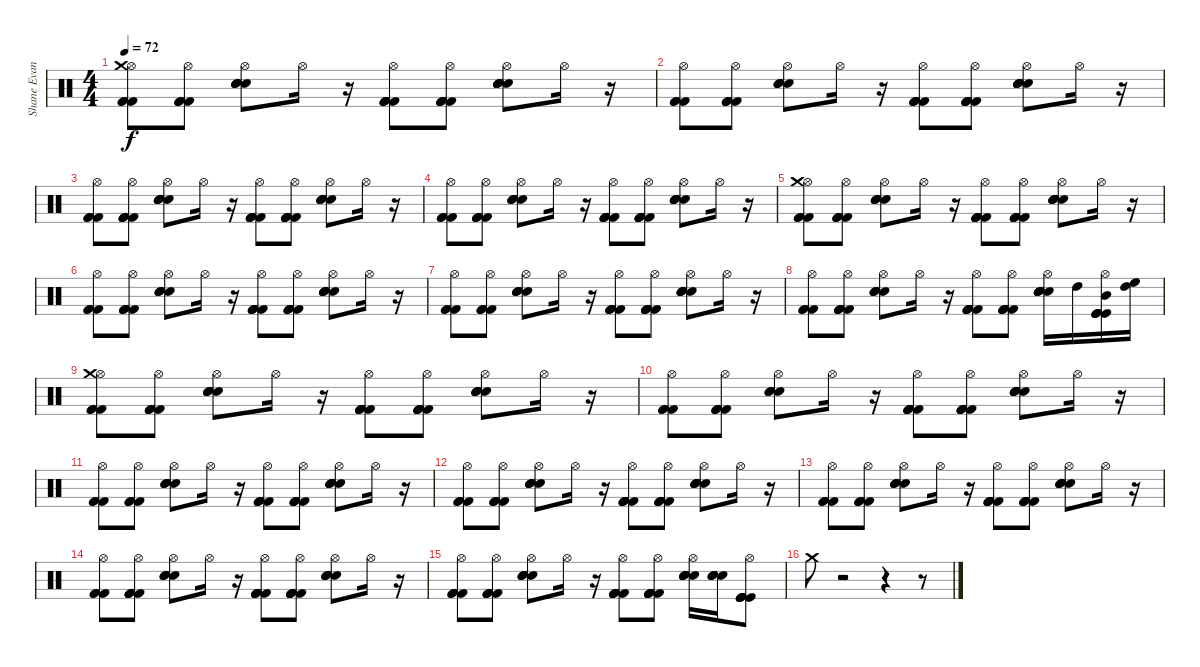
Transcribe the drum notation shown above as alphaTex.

\track ("Shane Evans" "Shane Evan") {instrument percussion}
\staff {score}
\articulation defaults
\ts (4 4)
\tempo 72
\clef neutral
\ks c
("Hi-Hat (open)" "Crash medium (hit)" "Kick (hit) 2" "Kick (hit) 2" "Kick (hit) 2").8{dy f} ("Hi-Hat (open)" "Kick (hit) 2" "Kick (hit) 2" "Kick (hit) 2" "Kick (hit) 2").8 ("Hi-Hat (open)" "Snare (hit) 2" "Snare (hit) 2" "Snare (hit) 2" "Snare (hit) 2").8 "Hi-Hat (open)".16 r.16 ("Hi-Hat (open)" "Kick (hit) 2" "Kick (hit) 2" "Kick (hit) 2" "Kick (hit) 2" "Kick (hit) 2").8 ("Hi-Hat (open)" "Kick (hit) 2" "Kick (hit) 2" "Kick (hit) 2" "Kick (hit) 2" "Kick (hit) 2").8 ("Hi-Hat (open)" "Snare (hit) 2" "Snare (hit) 2" "Snare (hit) 2" "Snare (hit) 2" "Snare (hit) 2").8 "Hi-Hat (open)".16 r.16 |
("Hi-Hat (open)" "Kick (hit) 2" "Kick (hit) 2" "Kick (hit) 2").8 ("Hi-Hat (open)" "Kick (hit) 2" "Kick (hit) 2" "Kick (hit) 2" "Kick (hit) 2").8 ("Hi-Hat (open)" "Snare (hit) 2" "Snare (hit) 2" "Snare (hit) 2" "Snare (hit) 2").8 "Hi-Hat (open)".16 r.16 ("Hi-Hat (open)" "Kick (hit) 2" "Kick (hit) 2" "Kick (hit) 2" "Kick (hit) 2" "Kick (hit) 2").8 ("Hi-Hat (open)" "Kick (hit) 2" "Kick (hit) 2" "Kick (hit) 2" "Kick (hit) 2" "Kick (hit) 2").8 ("Hi-Hat (open)" "Snare (hit) 2" "Snare (hit) 2" "Snare (hit) 2" "Snare (hit) 2" "Snare (hit) 2").8 "Hi-Hat (open)".16 r.16 |
("Hi-Hat (open)" "Kick (hit) 2" "Kick (hit) 2" "Kick (hit) 2").8 ("Hi-Hat (open)" "Kick (hit) 2" "Kick (hit) 2" "Kick (hit) 2" "Kick (hit) 2").8 ("Hi-Hat (open)" "Snare (hit) 2" "Snare (hit) 2" "Snare (hit) 2" "Snare (hit) 2").8 "Hi-Hat (open)".16 r.16 ("Hi-Hat (open)" "Kick (hit) 2" "Kick (hit) 2" "Kick (hit) 2" "Kick (hit) 2" "Kick (hit) 2").8 ("Hi-Hat (open)" "Kick (hit) 2" "Kick (hit) 2" "Kick (hit) 2" "Kick (hit) 2" "Kick (hit) 2").8 ("Hi-Hat (open)" "Snare (hit) 2" "Snare (hit) 2" "Snare (hit) 2" "Snare (hit) 2" "Snare (hit) 2").8 "Hi-Hat (open)".16 r.16 |
("Hi-Hat (open)" "Kick (hit) 2" "Kick (hit) 2" "Kick (hit) 2").8 ("Hi-Hat (open)" "Kick (hit) 2" "Kick (hit) 2" "Kick (hit) 2" "Kick (hit) 2").8 ("Hi-Hat (open)" "Snare (hit) 2" "Snare (hit) 2" "Snare (hit) 2" "Snare (hit) 2").8 "Hi-Hat (open)".16 r.16 ("Hi-Hat (open)" "Kick (hit) 2" "Kick (hit) 2" "Kick (hit) 2" "Kick (hit) 2" "Kick (hit) 2").8 ("Hi-Hat (open)" "Kick (hit) 2" "Kick (hit) 2" "Kick (hit) 2" "Kick (hit) 2" "Kick (hit) 2").8 ("Hi-Hat (open)" "Snare (hit) 2" "Snare (hit) 2" "Snare (hit) 2" "Snare (hit) 2" "Snare (hit) 2").8 "Hi-Hat (open)".16 r.16 |
("Hi-Hat (open)" "Crash medium (hit)" "Kick (hit) 2" "Kick (hit) 2" "Kick (hit) 2").8 ("Hi-Hat (open)" "Kick (hit) 2" "Kick (hit) 2" "Kick (hit) 2" "Kick (hit) 2").8 ("Hi-Hat (open)" "Snare (hit) 2" "Snare (hit) 2" "Snare (hit) 2" "Snare (hit) 2").8 "Hi-Hat (open)".16 r.16 ("Hi-Hat (open)" "Kick (hit) 2" "Kick (hit) 2" "Kick (hit) 2" "Kick (hit) 2" "Kick (hit) 2").8 ("Hi-Hat (open)" "Kick (hit) 2" "Kick (hit) 2" "Kick (hit) 2" "Kick (hit) 2" "Kick (hit) 2").8 ("Hi-Hat (open)" "Snare (hit) 2" "Snare (hit) 2" "Snare (hit) 2" "Snare (hit) 2" "Snare (hit) 2").8 "Hi-Hat (open)".16 r.16 |
("Hi-Hat (open)" "Kick (hit) 2" "Kick (hit) 2" "Kick (hit) 2").8 ("Hi-Hat (open)" "Kick (hit) 2" "Kick (hit) 2" "Kick (hit) 2" "Kick (hit) 2").8 ("Hi-Hat (open)" "Snare (hit) 2" "Snare (hit) 2" "Snare (hit) 2" "Snare (hit) 2").8 "Hi-Hat (open)".16 r.16 ("Hi-Hat (open)" "Kick (hit) 2" "Kick (hit) 2" "Kick (hit) 2" "Kick (hit) 2" "Kick (hit) 2").8 ("Hi-Hat (open)" "Kick (hit) 2" "Kick (hit) 2" "Kick (hit) 2" "Kick (hit) 2" "Kick (hit) 2").8 ("Hi-Hat (open)" "Snare (hit) 2" "Snare (hit) 2" "Snare (hit) 2" "Snare (hit) 2" "Snare (hit) 2").8 "Hi-Hat (open)".16 r.16 |
("Hi-Hat (open)" "Kick (hit) 2" "Kick (hit) 2" "Kick (hit) 2").8 ("Hi-Hat (open)" "Kick (hit) 2" "Kick (hit) 2" "Kick (hit) 2" "Kick (hit) 2").8 ("Hi-Hat (open)" "Snare (hit) 2" "Snare (hit) 2" "Snare (hit) 2" "Snare (hit) 2").8 "Hi-Hat (open)".16 r.16 ("Hi-Hat (open)" "Kick (hit) 2" "Kick (hit) 2" "Kick (hit) 2" "Kick (hit) 2" "Kick (hit) 2").8 ("Hi-Hat (open)" "Kick (hit) 2" "Kick (hit) 2" "Kick (hit) 2" "Kick (hit) 2" "Kick (hit) 2").8 ("Hi-Hat (open)" "Snare (hit) 2" "Snare (hit) 2" "Snare (hit) 2" "Snare (hit) 2" "Snare (hit) 2").8 "Hi-Hat (open)".16 r.16 |
("Hi-Hat (open)" "Kick (hit) 2" "Kick (hit) 2" "Kick (hit) 2").8 ("Hi-Hat (open)" "Kick (hit) 2" "Kick (hit) 2" "Kick (hit) 2" "Kick (hit) 2").8 ("Hi-Hat (open)" "Snare (hit) 2" "Snare (hit) 2" "Snare (hit) 2" "Snare (hit) 2").8 "Hi-Hat (open)".16 r.16 ("Hi-Hat (open)" "Kick (hit) 2" "Kick (hit) 2" "Kick (hit) 2" "Kick (hit) 2" "Kick (hit) 2").8 ("Hi-Hat (open)" "Kick (hit) 2" "Kick (hit) 2" "Kick (hit) 2" "Kick (hit) 2" "Kick (hit) 2").8 ("Hi-Hat (open)" "Snare (hit) 2" "Snare (hit) 2" "Snare (hit) 2" "Snare (hit) 2" "Snare (hit) 2").16 "High Tom (hit)".16 ("Hi-Hat (open)" "Kick (hit)" "Kick (hit)" "Kick (hit)" "Kick (hit)" "Mid Tom (hit)").16 ("High Floor Tom (hit)" "High Tom (hit)").16 |
("Hi-Hat (open)" "Kick (hit) 2" "Kick (hit) 2" "Kick (hit) 2" "Crash medium (hit)").8 ("Hi-Hat (open)" "Kick (hit) 2" "Kick (hit) 2" "Kick (hit) 2" "Kick (hit) 2").8 ("Hi-Hat (open)" "Snare (hit) 2" "Snare (hit) 2" "Snare (hit) 2" "Snare (hit) 2").8 "Hi-Hat (open)".16 r.16 ("Hi-Hat (open)" "Kick (hit) 2" "Kick (hit) 2" "Kick (hit) 2" "Kick (hit) 2" "Kick (hit) 2").8 ("Hi-Hat (open)" "Kick (hit) 2" "Kick (hit) 2" "Kick (hit) 2" "Kick (hit) 2" "Kick (hit) 2").8 ("Hi-Hat (open)" "Snare (hit) 2" "Snare (hit) 2" "Snare (hit) 2" "Snare (hit) 2" "Snare (hit) 2").8 "Hi-Hat (open)".16 r.16 |
("Hi-Hat (open)" "Kick (hit) 2" "Kick (hit) 2" "Kick (hit) 2").8 ("Hi-Hat (open)" "Kick (hit) 2" "Kick (hit) 2" "Kick (hit) 2" "Kick (hit) 2").8 ("Hi-Hat (open)" "Snare (hit) 2" "Snare (hit) 2" "Snare (hit) 2" "Snare (hit) 2").8 "Hi-Hat (open)".16 r.16 ("Hi-Hat (open)" "Kick (hit) 2" "Kick (hit) 2" "Kick (hit) 2" "Kick (hit) 2" "Kick (hit) 2").8 ("Hi-Hat (open)" "Kick (hit) 2" "Kick (hit) 2" "Kick (hit) 2" "Kick (hit) 2" "Kick (hit) 2").8 ("Hi-Hat (open)" "Snare (hit) 2" "Snare (hit) 2" "Snare (hit) 2" "Snare (hit) 2" "Snare (hit) 2").8 "Hi-Hat (open)".16 r.16 |
("Hi-Hat (open)" "Kick (hit) 2" "Kick (hit) 2" "Kick (hit) 2").8 ("Hi-Hat (open)" "Kick (hit) 2" "Kick (hit) 2" "Kick (hit) 2" "Kick (hit) 2").8 ("Hi-Hat (open)" "Snare (hit) 2" "Snare (hit) 2" "Snare (hit) 2" "Snare (hit) 2").8 "Hi-Hat (open)".16 r.16 ("Hi-Hat (open)" "Kick (hit) 2" "Kick (hit) 2" "Kick (hit) 2" "Kick (hit) 2" "Kick (hit) 2").8 ("Hi-Hat (open)" "Kick (hit) 2" "Kick (hit) 2" "Kick (hit) 2" "Kick (hit) 2" "Kick (hit) 2").8 ("Hi-Hat (open)" "Snare (hit) 2" "Snare (hit) 2" "Snare (hit) 2" "Snare (hit) 2" "Snare (hit) 2").8 "Hi-Hat (open)".16 r.16 |
("Hi-Hat (open)" "Kick (hit) 2" "Kick (hit) 2" "Kick (hit) 2").8 ("Hi-Hat (open)" "Kick (hit) 2" "Kick (hit) 2" "Kick (hit) 2" "Kick (hit) 2").8 ("Hi-Hat (open)" "Snare (hit) 2" "Snare (hit) 2" "Snare (hit) 2" "Snare (hit) 2").8 "Hi-Hat (open)".16 r.16 ("Hi-Hat (open)" "Kick (hit) 2" "Kick (hit) 2" "Kick (hit) 2" "Kick (hit) 2" "Kick (hit) 2").8 ("Hi-Hat (open)" "Kick (hit) 2" "Kick (hit) 2" "Kick (hit) 2" "Kick (hit) 2" "Kick (hit) 2").8 ("Hi-Hat (open)" "Snare (hit) 2" "Snare (hit) 2" "Snare (hit) 2" "Snare (hit) 2" "Snare (hit) 2").8 "Hi-Hat (open)".16 r.16 |
("Hi-Hat (open)" "Kick (hit) 2" "Kick (hit) 2" "Kick (hit) 2").8 ("Hi-Hat (open)" "Kick (hit) 2" "Kick (hit) 2" "Kick (hit) 2" "Kick (hit) 2").8 ("Hi-Hat (open)" "Snare (hit) 2" "Snare (hit) 2" "Snare (hit) 2" "Snare (hit) 2").8 "Hi-Hat (open)".16 r.16 ("Hi-Hat (open)" "Kick (hit) 2" "Kick (hit) 2" "Kick (hit) 2" "Kick (hit) 2" "Kick (hit) 2").8 ("Hi-Hat (open)" "Kick (hit) 2" "Kick (hit) 2" "Kick (hit) 2" "Kick (hit) 2" "Kick (hit) 2").8 ("Hi-Hat (open)" "Snare (hit) 2" "Snare (hit) 2" "Snare (hit) 2" "Snare (hit) 2" "Snare (hit) 2").8 "Hi-Hat (open)".16 r.16 |
("Hi-Hat (open)" "Kick (hit) 2" "Kick (hit) 2" "Kick (hit) 2").8 ("Hi-Hat (open)" "Kick (hit) 2" "Kick (hit) 2" "Kick (hit) 2" "Kick (hit) 2").8 ("Hi-Hat (open)" "Snare (hit) 2" "Snare (hit) 2" "Snare (hit) 2" "Snare (hit) 2").8 "Hi-Hat (open)".16 r.16 ("Hi-Hat (open)" "Kick (hit) 2" "Kick (hit) 2" "Kick (hit) 2" "Kick (hit) 2" "Kick (hit) 2").8 ("Hi-Hat (open)" "Kick (hit) 2" "Kick (hit) 2" "Kick (hit) 2" "Kick (hit) 2" "Kick (hit) 2").8 ("Hi-Hat (open)" "Snare (hit) 2" "Snare (hit) 2" "Snare (hit) 2" "Snare (hit) 2" "Snare (hit) 2").8 "Hi-Hat (open)".16 r.16 |
("Hi-Hat (open)" "Kick (hit) 2" "Kick (hit) 2" "Kick (hit) 2").8 ("Hi-Hat (open)" "Kick (hit) 2" "Kick (hit) 2" "Kick (hit) 2" "Kick (hit) 2").8 ("Hi-Hat (open)" "Snare (hit) 2" "Snare (hit) 2" "Snare (hit) 2" "Snare (hit) 2").8 "Hi-Hat (open)".16 r.16 ("Hi-Hat (open)" "Kick (hit) 2" "Kick (hit) 2" "Kick (hit) 2" "Kick (hit) 2" "Kick (hit) 2").8 ("Hi-Hat (open)" "Kick (hit) 2" "Kick (hit) 2" "Kick (hit) 2" "Kick (hit) 2" "Kick (hit) 2").8 ("Hi-Hat (open)" "Snare (hit) 2" "Snare (hit) 2" "Snare (hit) 2" "Snare (hit) 2" "Snare (hit) 2").16 ("Snare (hit) 2" "Snare (hit) 2" "Snare (hit) 2" "Snare (hit) 2").16 ("Hi-Hat (open)" "Kick (hit)" "Kick (hit)" "Kick (hit)" "Kick (hit)" "Kick (hit)").8 |
"Crash medium (hit)".8 r.2 r.4 r.8
